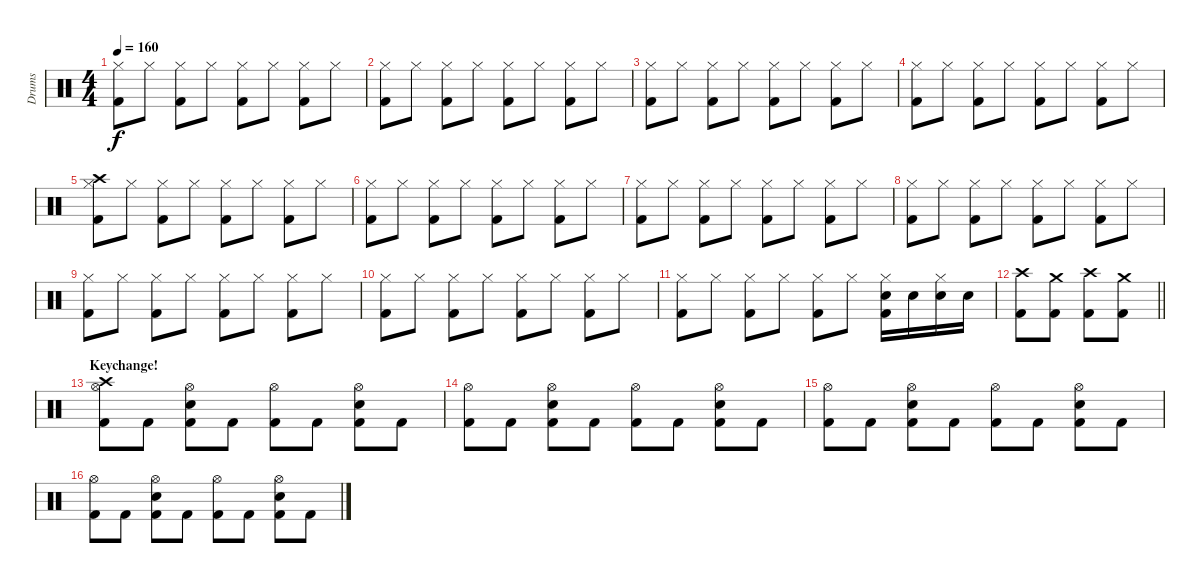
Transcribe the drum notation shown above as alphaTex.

\track ("Drums" "Drums") {instrument percussion}
\staff {score}
\articulation defaults
\ts (4 4)
\tempo 160
\clef neutral
\ks c
("Hi-Hat (closed)" "Kick (hit) 2").8{dy f} "Hi-Hat (closed)".8 ("Hi-Hat (closed)" "Kick (hit) 2").8 "Hi-Hat (closed)".8 ("Hi-Hat (closed)" "Kick (hit) 2").8 "Hi-Hat (closed)".8 ("Hi-Hat (closed)" "Kick (hit) 2").8 "Hi-Hat (closed)".8 |
("Hi-Hat (closed)" "Kick (hit) 2").8 "Hi-Hat (closed)".8 ("Hi-Hat (closed)" "Kick (hit) 2").8 "Hi-Hat (closed)".8 ("Hi-Hat (closed)" "Kick (hit) 2").8 "Hi-Hat (closed)".8 ("Hi-Hat (closed)" "Kick (hit) 2").8 "Hi-Hat (closed)".8 |
("Hi-Hat (closed)" "Kick (hit) 2").8 "Hi-Hat (closed)".8 ("Hi-Hat (closed)" "Kick (hit) 2").8 "Hi-Hat (closed)".8 ("Hi-Hat (closed)" "Kick (hit) 2").8 "Hi-Hat (closed)".8 ("Hi-Hat (closed)" "Kick (hit) 2").8 "Hi-Hat (closed)".8 |
("Hi-Hat (closed)" "Kick (hit) 2").8 "Hi-Hat (closed)".8 ("Hi-Hat (closed)" "Kick (hit) 2").8 "Hi-Hat (closed)".8 ("Hi-Hat (closed)" "Kick (hit) 2").8 "Hi-Hat (closed)".8 ("Hi-Hat (closed)" "Kick (hit) 2").8 "Hi-Hat (closed)".8 |
("Crash high (hit)" "Hi-Hat (closed)" "Kick (hit) 2").8 "Hi-Hat (closed)".8 ("Hi-Hat (closed)" "Kick (hit) 2").8 "Hi-Hat (closed)".8 ("Hi-Hat (closed)" "Kick (hit) 2").8 "Hi-Hat (closed)".8 ("Hi-Hat (closed)" "Kick (hit) 2").8 "Hi-Hat (closed)".8 |
("Hi-Hat (closed)" "Kick (hit) 2").8 "Hi-Hat (closed)".8 ("Hi-Hat (closed)" "Kick (hit) 2").8 "Hi-Hat (closed)".8 ("Hi-Hat (closed)" "Kick (hit) 2").8 "Hi-Hat (closed)".8 ("Hi-Hat (closed)" "Kick (hit) 2").8 "Hi-Hat (closed)".8 |
("Hi-Hat (closed)" "Kick (hit) 2").8 "Hi-Hat (closed)".8 ("Hi-Hat (closed)" "Kick (hit) 2").8 "Hi-Hat (closed)".8 ("Hi-Hat (closed)" "Kick (hit) 2").8 "Hi-Hat (closed)".8 ("Hi-Hat (closed)" "Kick (hit) 2").8 "Hi-Hat (closed)".8 |
("Hi-Hat (closed)" "Kick (hit) 2").8 "Hi-Hat (closed)".8 ("Hi-Hat (closed)" "Kick (hit) 2").8 "Hi-Hat (closed)".8 ("Hi-Hat (closed)" "Kick (hit) 2").8 "Hi-Hat (closed)".8 ("Hi-Hat (closed)" "Kick (hit) 2").8 "Hi-Hat (closed)".8 |
("Hi-Hat (closed)" "Kick (hit) 2").8 "Hi-Hat (closed)".8 ("Hi-Hat (closed)" "Kick (hit) 2").8 "Hi-Hat (closed)".8 ("Hi-Hat (closed)" "Kick (hit) 2").8 "Hi-Hat (closed)".8 ("Hi-Hat (closed)" "Kick (hit) 2").8 "Hi-Hat (closed)".8 |
("Hi-Hat (closed)" "Kick (hit) 2").8 "Hi-Hat (closed)".8 ("Hi-Hat (closed)" "Kick (hit) 2").8 "Hi-Hat (closed)".8 ("Hi-Hat (closed)" "Kick (hit) 2").8 "Hi-Hat (closed)".8 ("Hi-Hat (closed)" "Kick (hit) 2").8 "Hi-Hat (closed)".8 |
("Hi-Hat (closed)" "Kick (hit) 2").8 "Hi-Hat (closed)".8 ("Hi-Hat (closed)" "Kick (hit) 2").8 "Hi-Hat (closed)".8 ("Hi-Hat (closed)" "Kick (hit) 2").8 "Hi-Hat (closed)".8 ("Hi-Hat (closed)" "Snare (hit) 2" "Kick (hit) 2").16 "Snare (hit) 2".16 ("Hi-Hat (closed)" "Snare (hit) 2").16 "Snare (hit) 2".16 |
\barLineRight lightlight
("Crash high (hit)" "Kick (hit) 2").8 ("Crash medium (hit)" "Kick (hit) 2").8 ("Crash high (hit)" "Kick (hit) 2").8 ("Crash medium (hit)" "Kick (hit) 2").8 |
\section ("" "Keychange!")
("Crash high (hit)" "Hi-Hat (open)" "Kick (hit) 2").8 "Kick (hit) 2".8 ("Hi-Hat (open)" "Snare (hit) 2" "Kick (hit) 2").8 "Kick (hit) 2".8 ("Hi-Hat (open)" "Kick (hit) 2").8 "Kick (hit) 2".8 ("Hi-Hat (open)" "Snare (hit) 2" "Kick (hit) 2").8 "Kick (hit) 2".8 |
("Hi-Hat (open)" "Kick (hit) 2").8 "Kick (hit) 2".8 ("Hi-Hat (open)" "Snare (hit) 2" "Kick (hit) 2").8 "Kick (hit) 2".8 ("Hi-Hat (open)" "Kick (hit) 2").8 "Kick (hit) 2".8 ("Hi-Hat (open)" "Snare (hit) 2" "Kick (hit) 2").8 "Kick (hit) 2".8 |
("Hi-Hat (open)" "Kick (hit) 2").8 "Kick (hit) 2".8 ("Hi-Hat (open)" "Snare (hit) 2" "Kick (hit) 2").8 "Kick (hit) 2".8 ("Hi-Hat (open)" "Kick (hit) 2").8 "Kick (hit) 2".8 ("Hi-Hat (open)" "Snare (hit) 2" "Kick (hit) 2").8 "Kick (hit) 2".8 |
("Hi-Hat (open)" "Kick (hit) 2").8 "Kick (hit) 2".8 ("Hi-Hat (open)" "Snare (hit) 2" "Kick (hit) 2").8 "Kick (hit) 2".8 ("Hi-Hat (open)" "Kick (hit) 2").8 "Kick (hit) 2".8 ("Hi-Hat (open)" "Snare (hit) 2" "Kick (hit) 2").8 "Kick (hit) 2".8
